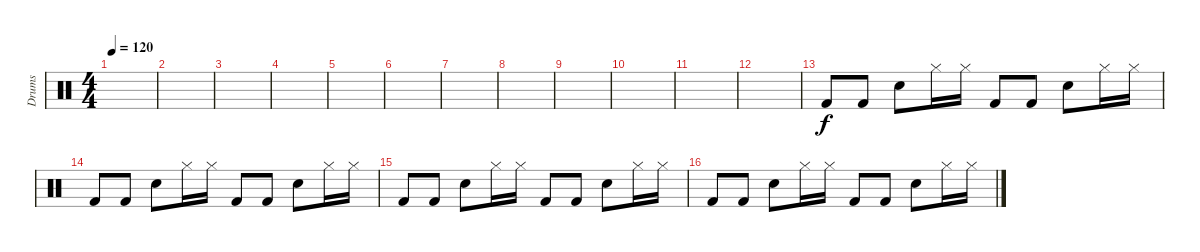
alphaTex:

\track ("Drums" "Drums") {instrument percussion}
\staff {score}
\articulation defaults
\ts (4 4)
\section ("" "")
\tempo 120
\clef neutral
\ks c
|
|
|
|
|
|
|
|
|
|
|
|
"Kick (hit) 2".8 "Kick (hit) 2".8 "Snare (hit) 2".8 "Hi-Hat (closed)".16 "Hi-Hat (closed)".16 "Kick (hit) 2".8 "Kick (hit) 2".8 "Snare (hit) 2".8 "Hi-Hat (closed)".16 "Hi-Hat (closed)".16 |
"Kick (hit) 2".8 "Kick (hit) 2".8 "Snare (hit) 2".8 "Hi-Hat (closed)".16 "Hi-Hat (closed)".16 "Kick (hit) 2".8 "Kick (hit) 2".8 "Snare (hit) 2".8 "Hi-Hat (closed)".16 "Hi-Hat (closed)".16 |
"Kick (hit) 2".8 "Kick (hit) 2".8 "Snare (hit) 2".8 "Hi-Hat (closed)".16 "Hi-Hat (closed)".16 "Kick (hit) 2".8 "Kick (hit) 2".8 "Snare (hit) 2".8 "Hi-Hat (closed)".16 "Hi-Hat (closed)".16 |
"Kick (hit) 2".8 "Kick (hit) 2".8 "Snare (hit) 2".8 "Hi-Hat (closed)".16 "Hi-Hat (closed)".16 "Kick (hit) 2".8 "Kick (hit) 2".8 "Snare (hit) 2".8 "Hi-Hat (closed)".16 "Hi-Hat (closed)".16
